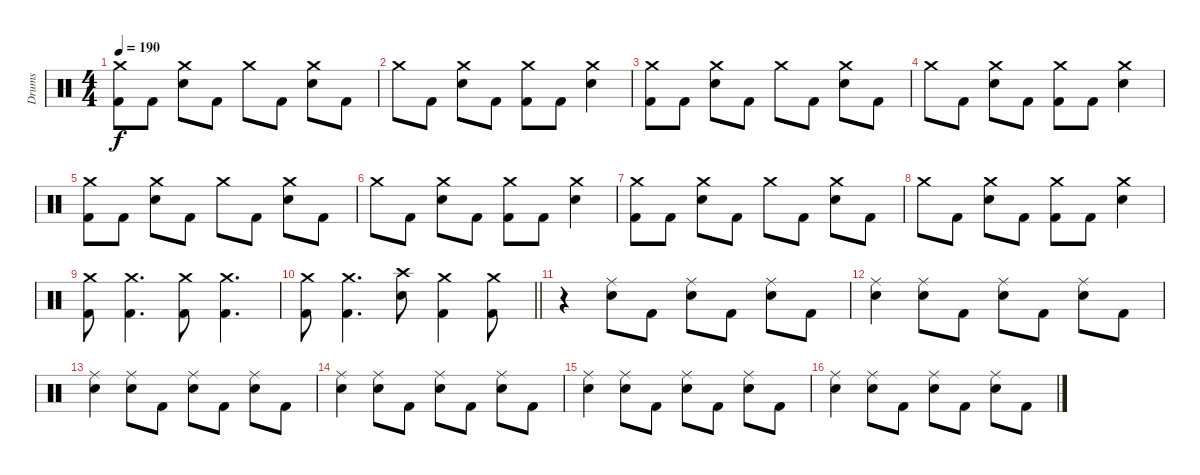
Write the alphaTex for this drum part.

\track ("Drums" "Drums") {instrument percussion}
\staff {score}
\articulation defaults
\ts (4 4)
\tempo 190
\clef neutral
\ks c
("Crash medium (hit)" "Kick (hit) 2").8{dy f} "Kick (hit) 2".8 ("Crash medium (hit)" "Electric Snare (hit)").8 "Kick (hit) 2".8 "Crash medium (hit)".8 "Kick (hit) 2".8 ("Crash medium (hit)" "Electric Snare (hit)").8 "Kick (hit) 2".8 |
"Crash medium (hit)".8 "Kick (hit) 2".8 ("Crash medium (hit)" "Electric Snare (hit)").8 "Kick (hit) 2".8 ("Crash medium (hit)" "Kick (hit) 2").8 "Kick (hit) 2".8 ("Crash medium (hit)" "Electric Snare (hit)").4 |
("Crash medium (hit)" "Kick (hit) 2").8 "Kick (hit) 2".8 ("Crash medium (hit)" "Electric Snare (hit)").8 "Kick (hit) 2".8 "Crash medium (hit)".8 "Kick (hit) 2".8 ("Crash medium (hit)" "Electric Snare (hit)").8 "Kick (hit) 2".8 |
"Crash medium (hit)".8 "Kick (hit) 2".8 ("Crash medium (hit)" "Electric Snare (hit)").8 "Kick (hit) 2".8 ("Crash medium (hit)" "Kick (hit) 2").8 "Kick (hit) 2".8 ("Crash medium (hit)" "Electric Snare (hit)").4 |
("Crash medium (hit)" "Kick (hit) 2").8 "Kick (hit) 2".8 ("Crash medium (hit)" "Electric Snare (hit)").8 "Kick (hit) 2".8 "Crash medium (hit)".8 "Kick (hit) 2".8 ("Crash medium (hit)" "Electric Snare (hit)").8 "Kick (hit) 2".8 |
"Crash medium (hit)".8 "Kick (hit) 2".8 ("Crash medium (hit)" "Electric Snare (hit)").8 "Kick (hit) 2".8 ("Crash medium (hit)" "Kick (hit) 2").8 "Kick (hit) 2".8 ("Crash medium (hit)" "Electric Snare (hit)").4 |
("Crash medium (hit)" "Kick (hit) 2").8 "Kick (hit) 2".8 ("Crash medium (hit)" "Electric Snare (hit)").8 "Kick (hit) 2".8 "Crash medium (hit)".8 "Kick (hit) 2".8 ("Crash medium (hit)" "Electric Snare (hit)").8 "Kick (hit) 2".8 |
"Crash medium (hit)".8 "Kick (hit) 2".8 ("Crash medium (hit)" "Electric Snare (hit)").8 "Kick (hit) 2".8 ("Crash medium (hit)" "Kick (hit) 2").8 "Kick (hit) 2".8 ("Crash medium (hit)" "Electric Snare (hit)").4 |
("Crash medium (hit)" "Kick (hit) 2").8 ("Crash medium (hit)" "Kick (hit) 2").4{d} ("Crash medium (hit)" "Kick (hit) 2").8 ("Crash medium (hit)" "Kick (hit) 2").4{d} |
\barLineRight lightlight
("Crash medium (hit)" "Kick (hit) 2").8 ("Crash medium (hit)" "Kick (hit) 2").4{d} ("Crash high (hit)" "Electric Snare (hit)").8 ("Crash medium (hit)" "Kick (hit) 2").4 ("Crash medium (hit)" "Kick (hit) 2").8 |
\section ("" "")
r.4 ("Ride (middle)" "Electric Snare (hit)").8 "Kick (hit) 2".8 ("Ride (middle)" "Electric Snare (hit)").8 "Kick (hit) 2".8 ("Ride (middle)" "Electric Snare (hit)").8 "Kick (hit) 2".8 |
("Ride (middle)" "Electric Snare (hit)").4 ("Ride (middle)" "Electric Snare (hit)").8 "Kick (hit) 2".8 ("Ride (middle)" "Electric Snare (hit)").8 "Kick (hit) 2".8 ("Ride (middle)" "Electric Snare (hit)").8 "Kick (hit) 2".8 |
("Ride (middle)" "Electric Snare (hit)").4 ("Ride (middle)" "Electric Snare (hit)").8 "Kick (hit) 2".8 ("Ride (middle)" "Electric Snare (hit)").8 "Kick (hit) 2".8 ("Ride (middle)" "Electric Snare (hit)").8 "Kick (hit) 2".8 |
("Ride (middle)" "Electric Snare (hit)").4 ("Ride (middle)" "Electric Snare (hit)").8 "Kick (hit) 2".8 ("Ride (middle)" "Electric Snare (hit)").8 "Kick (hit) 2".8 ("Ride (middle)" "Electric Snare (hit)").8 "Kick (hit) 2".8 |
("Ride (middle)" "Electric Snare (hit)").4 ("Ride (middle)" "Electric Snare (hit)").8 "Kick (hit) 2".8 ("Ride (middle)" "Electric Snare (hit)").8 "Kick (hit) 2".8 ("Ride (middle)" "Electric Snare (hit)").8 "Kick (hit) 2".8 |
("Ride (middle)" "Electric Snare (hit)").4 ("Ride (middle)" "Electric Snare (hit)").8 "Kick (hit) 2".8 ("Ride (middle)" "Electric Snare (hit)").8 "Kick (hit) 2".8 ("Ride (middle)" "Electric Snare (hit)").8 "Kick (hit) 2".8
